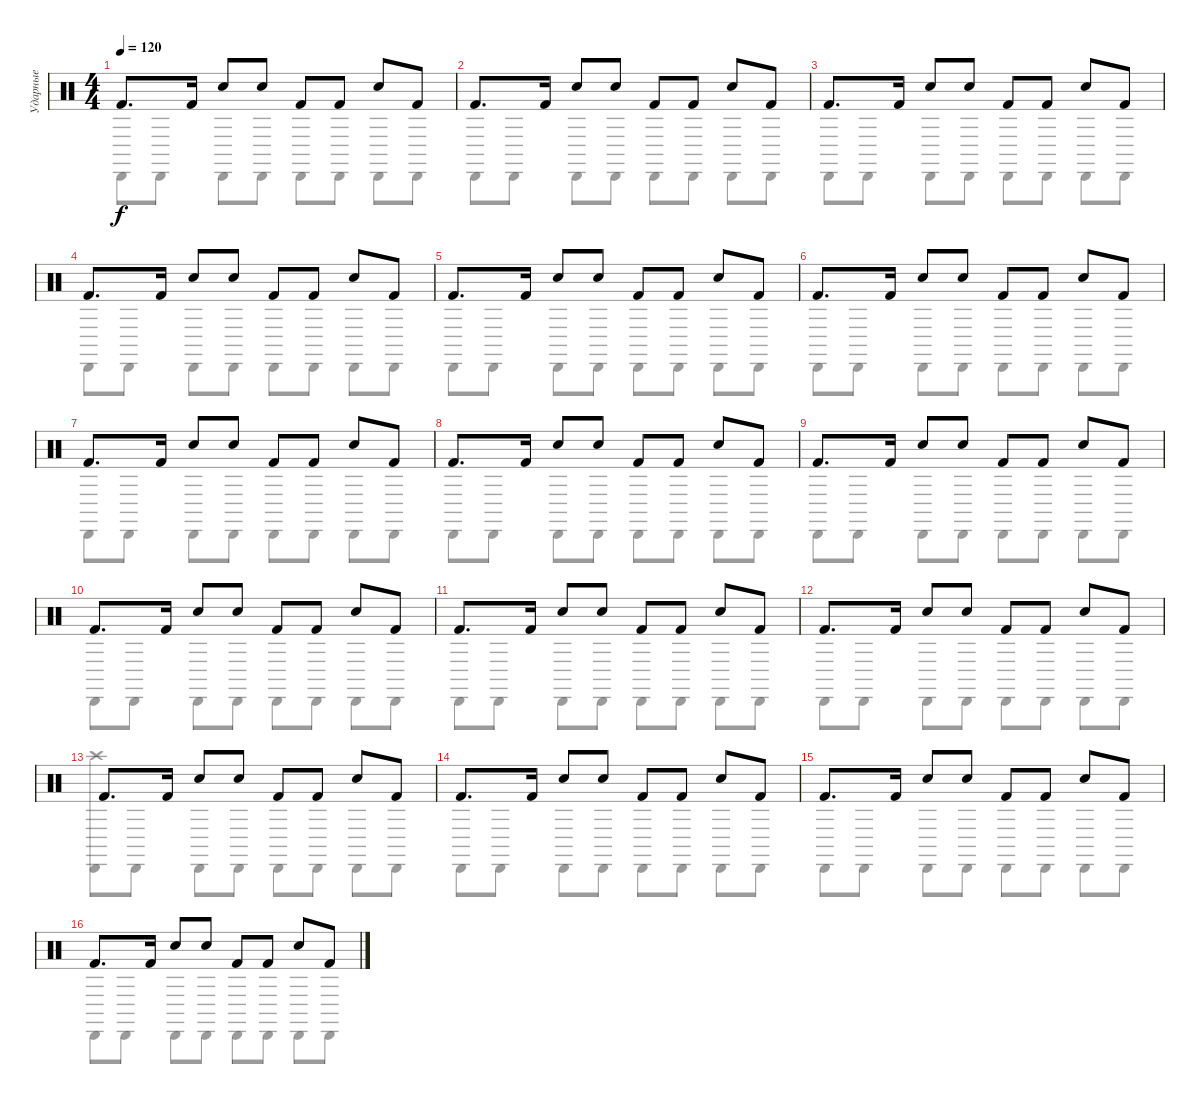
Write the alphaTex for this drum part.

\track ("Ударные" "Ударные") {instrument percussion}
\staff {score}
\articulation defaults
\voice
\ts (4 4)
\tempo 120
\clef neutral
\ks c "Kick (hit) 2".8{d dy f} "Kick (hit) 2".16 "Hand Clap (hit)".8 "Hand Clap (hit)".8 "Kick (hit) 2".8 "Kick (hit) 2".8 "Hand Clap (hit)".8 "Kick (hit) 2".8
|
"Kick (hit) 2".8{d} "Kick (hit) 2".16 "Hand Clap (hit)".8 "Hand Clap (hit)".8 "Kick (hit) 2".8 "Kick (hit) 2".8 "Hand Clap (hit)".8 "Kick (hit) 2".8 |
"Kick (hit) 2".8{d} "Kick (hit) 2".16 "Hand Clap (hit)".8 "Hand Clap (hit)".8 "Kick (hit) 2".8 "Kick (hit) 2".8 "Hand Clap (hit)".8 "Kick (hit) 2".8 |
"Kick (hit) 2".8{d} "Kick (hit) 2".16 "Hand Clap (hit)".8 "Hand Clap (hit)".8 "Kick (hit) 2".8 "Kick (hit) 2".8 "Hand Clap (hit)".8 "Kick (hit) 2".8 |
"Kick (hit) 2".8{d} "Kick (hit) 2".16 "Hand Clap (hit)".8 "Hand Clap (hit)".8 "Kick (hit) 2".8 "Kick (hit) 2".8 "Hand Clap (hit)".8 "Kick (hit) 2".8 |
"Kick (hit) 2".8{d} "Kick (hit) 2".16 "Hand Clap (hit)".8 "Hand Clap (hit)".8 "Kick (hit) 2".8 "Kick (hit) 2".8 "Hand Clap (hit)".8 "Kick (hit) 2".8 |
"Kick (hit) 2".8{d} "Kick (hit) 2".16 "Hand Clap (hit)".8 "Hand Clap (hit)".8 "Kick (hit) 2".8 "Kick (hit) 2".8 "Hand Clap (hit)".8 "Kick (hit) 2".8 |
"Kick (hit) 2".8{d} "Kick (hit) 2".16 "Hand Clap (hit)".8 "Hand Clap (hit)".8 "Kick (hit) 2".8 "Kick (hit) 2".8 "Hand Clap (hit)".8 "Kick (hit) 2".8 |
"Kick (hit) 2".8{d} "Kick (hit) 2".16 "Hand Clap (hit)".8 "Hand Clap (hit)".8 "Kick (hit) 2".8 "Kick (hit) 2".8 "Hand Clap (hit)".8 "Kick (hit) 2".8 |
"Kick (hit) 2".8{d} "Kick (hit) 2".16 "Hand Clap (hit)".8 "Hand Clap (hit)".8 "Kick (hit) 2".8 "Kick (hit) 2".8 "Hand Clap (hit)".8 "Kick (hit) 2".8 |
"Kick (hit) 2".8{d} "Kick (hit) 2".16 "Hand Clap (hit)".8 "Hand Clap (hit)".8 "Kick (hit) 2".8 "Kick (hit) 2".8 "Hand Clap (hit)".8 "Kick (hit) 2".8 |
"Kick (hit) 2".8{d} "Kick (hit) 2".16 "Hand Clap (hit)".8 "Hand Clap (hit)".8 "Kick (hit) 2".8 "Kick (hit) 2".8 "Hand Clap (hit)".8 "Kick (hit) 2".8 |
"Kick (hit) 2".8{d} "Kick (hit) 2".16 "Hand Clap (hit)".8 "Hand Clap (hit)".8 "Kick (hit) 2".8 "Kick (hit) 2".8 "Hand Clap (hit)".8 "Kick (hit) 2".8 |
"Kick (hit) 2".8{d} "Kick (hit) 2".16 "Hand Clap (hit)".8 "Hand Clap (hit)".8 "Kick (hit) 2".8 "Kick (hit) 2".8 "Hand Clap (hit)".8 "Kick (hit) 2".8 |
"Kick (hit) 2".8{d} "Kick (hit) 2".16 "Hand Clap (hit)".8 "Hand Clap (hit)".8 "Kick (hit) 2".8 "Kick (hit) 2".8 "Hand Clap (hit)".8 "Kick (hit) 2".8 |
"Kick (hit) 2".8{d} "Kick (hit) 2".16 "Hand Clap (hit)".8 "Hand Clap (hit)".8 "Kick (hit) 2".8 "Kick (hit) 2".8 "Hand Clap (hit)".8 "Kick (hit) 2".8
\voice
\clef neutral
\ottava regular
\simile none
\ks c "Cabasa (hit)".8{dy f} "Cabasa (hit)".8 "Cabasa (hit)".8 "Cabasa (hit)".8 "Cabasa (hit)".8 "Cabasa (hit)".8 "Cabasa (hit)".8 "Cabasa (hit)".8
|
"Cabasa (hit)".8 "Cabasa (hit)".8 "Cabasa (hit)".8 "Cabasa (hit)".8 "Cabasa (hit)".8 "Cabasa (hit)".8 "Cabasa (hit)".8 "Cabasa (hit)".8 |
"Cabasa (hit)".8 "Cabasa (hit)".8 "Cabasa (hit)".8 "Cabasa (hit)".8 "Cabasa (hit)".8 "Cabasa (hit)".8 "Cabasa (hit)".8 "Cabasa (hit)".8 |
"Cabasa (hit)".8 "Cabasa (hit)".8 "Cabasa (hit)".8 "Cabasa (hit)".8 "Cabasa (hit)".8 "Cabasa (hit)".8 "Cabasa (hit)".8 "Cabasa (hit)".8 |
"Cabasa (hit)".8 "Cabasa (hit)".8 "Cabasa (hit)".8 "Cabasa (hit)".8 "Cabasa (hit)".8 "Cabasa (hit)".8 "Cabasa (hit)".8 "Cabasa (hit)".8 |
"Cabasa (hit)".8 "Cabasa (hit)".8 "Cabasa (hit)".8 "Cabasa (hit)".8 "Cabasa (hit)".8 "Cabasa (hit)".8 "Cabasa (hit)".8 "Cabasa (hit)".8 |
"Cabasa (hit)".8 "Cabasa (hit)".8 "Cabasa (hit)".8 "Cabasa (hit)".8 "Cabasa (hit)".8 "Cabasa (hit)".8 "Cabasa (hit)".8 "Cabasa (hit)".8 |
"Cabasa (hit)".8 "Cabasa (hit)".8 "Cabasa (hit)".8 "Cabasa (hit)".8 "Cabasa (hit)".8 "Cabasa (hit)".8 "Cabasa (hit)".8 "Cabasa (hit)".8 |
"Cabasa (hit)".8 "Cabasa (hit)".8 "Cabasa (hit)".8 "Cabasa (hit)".8 "Cabasa (hit)".8 "Cabasa (hit)".8 "Cabasa (hit)".8 "Cabasa (hit)".8 |
"Cabasa (hit)".8 "Cabasa (hit)".8 "Cabasa (hit)".8 "Cabasa (hit)".8 "Cabasa (hit)".8 "Cabasa (hit)".8 "Cabasa (hit)".8 "Cabasa (hit)".8 |
"Cabasa (hit)".8 "Cabasa (hit)".8 "Cabasa (hit)".8 "Cabasa (hit)".8 "Cabasa (hit)".8 "Cabasa (hit)".8 "Cabasa (hit)".8 "Cabasa (hit)".8 |
"Cabasa (hit)".8 "Cabasa (hit)".8 "Cabasa (hit)".8 "Cabasa (hit)".8 "Cabasa (hit)".8 "Cabasa (hit)".8 "Cabasa (hit)".8 "Cabasa (hit)".8 |
("Cabasa (hit)" "Crash high (hit)").8 "Cabasa (hit)".8 "Cabasa (hit)".8 "Cabasa (hit)".8 "Cabasa (hit)".8 "Cabasa (hit)".8 "Cabasa (hit)".8 "Cabasa (hit)".8 |
"Cabasa (hit)".8 "Cabasa (hit)".8 "Cabasa (hit)".8 "Cabasa (hit)".8 "Cabasa (hit)".8 "Cabasa (hit)".8 "Cabasa (hit)".8 "Cabasa (hit)".8 |
"Cabasa (hit)".8 "Cabasa (hit)".8 "Cabasa (hit)".8 "Cabasa (hit)".8 "Cabasa (hit)".8 "Cabasa (hit)".8 "Cabasa (hit)".8 "Cabasa (hit)".8 |
"Cabasa (hit)".8 "Cabasa (hit)".8 "Cabasa (hit)".8 "Cabasa (hit)".8 "Cabasa (hit)".8 "Cabasa (hit)".8 "Cabasa (hit)".8 "Cabasa (hit)".8
